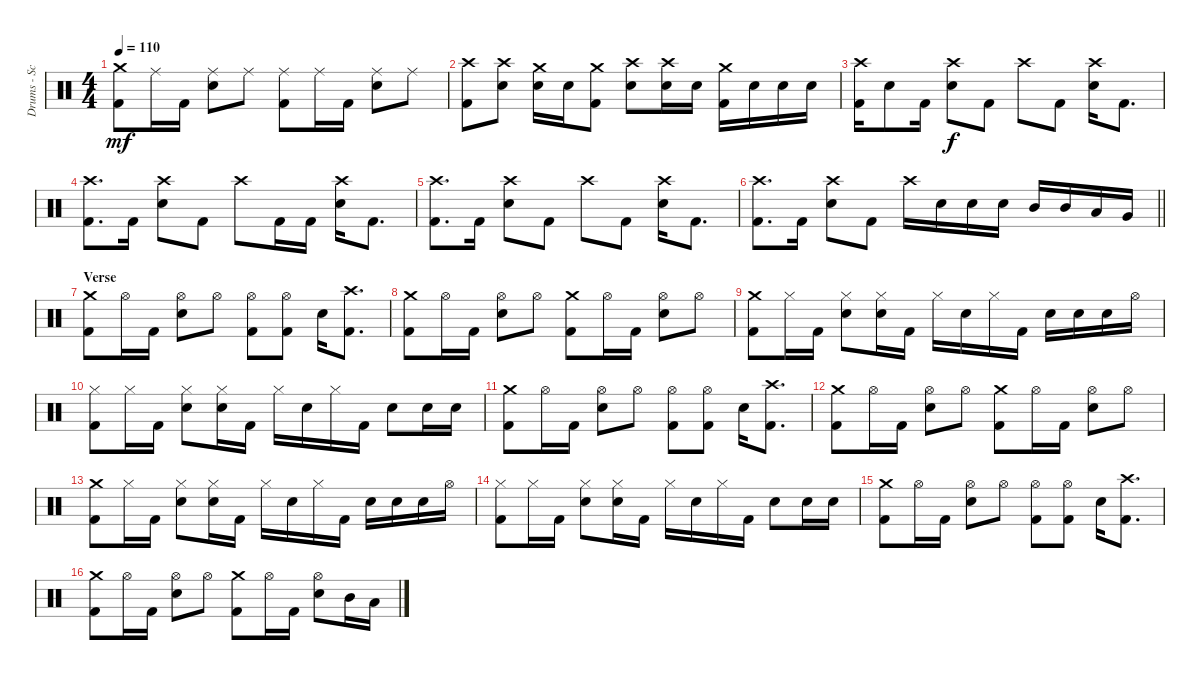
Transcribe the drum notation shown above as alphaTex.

\track ("Drums - Scott" "Drums - Sc") {instrument percussion}
\staff {score}
\articulation defaults
\ts (4 4)
\tempo 110
\clef neutral
\ks c
("Crash medium (hit)" "Kick (hit) 2").8{dy mf} "Ride (middle)".16 "Kick (hit) 2".16 ("Ride (middle)" "Electric Snare (hit)").8 "Ride (middle)".8 ("Ride (middle)" "Kick (hit) 2").8 "Ride (middle)".16 "Kick (hit) 2".16 ("Ride (middle)" "Electric Snare (hit)").8 "Ride (middle)".8 |
("Crash high (hit)" "Kick (hit) 2").8 ("Crash high (hit)" "Electric Snare (hit)").8 ("Crash medium (hit)" "Electric Snare (hit)").16 "Electric Snare (hit)".16 ("Crash medium (hit)" "Kick (hit) 2").8 ("Crash high (hit)" "Electric Snare (hit)").8 ("Crash high (hit)" "Electric Snare (hit)").16 "Electric Snare (hit)".16 ("Crash medium (hit)" "Kick (hit) 2").16 "Electric Snare (hit)".16 "Electric Snare (hit)".16 "Electric Snare (hit)".16 |
("Crash high (hit)" "Kick (hit) 2").16 "Electric Snare (hit)".8 "Kick (hit) 2".16 ("Crash high (hit)" "Electric Snare (hit)").8{dy f} "Kick (hit) 2".8 "Crash high (hit)".8 "Kick (hit) 2".8 ("Crash high (hit)" "Electric Snare (hit)").16 "Kick (hit) 2".8{d} |
("Crash high (hit)" "Kick (hit) 2").8{d} "Kick (hit) 2".16 ("Crash high (hit)" "Electric Snare (hit)").8 "Kick (hit) 2".8 "Crash high (hit)".8 "Kick (hit) 2".16 "Kick (hit) 2".16 ("Crash high (hit)" "Electric Snare (hit)").16 "Kick (hit) 2".8{d} |
("Crash high (hit)" "Kick (hit) 2").8{d} "Kick (hit) 2".16 ("Crash high (hit)" "Electric Snare (hit)").8 "Kick (hit) 2".8 "Crash high (hit)".8 "Kick (hit) 2".8 ("Crash high (hit)" "Electric Snare (hit)").16 "Kick (hit) 2".8{d} |
\barLineRight lightlight
("Crash high (hit)" "Kick (hit) 2").8{d} "Kick (hit) 2".16 ("Crash high (hit)" "Electric Snare (hit)").8 "Kick (hit) 2".8 "Crash high (hit)".16 "Electric Snare (hit)".16 "Electric Snare (hit)".16 "Electric Snare (hit)".16 "Mid Tom (hit)".16 "Mid Tom (hit)".16 "Low Tom (hit)".16 "Very Low Tom (hit)".16 |
\section ("" "Verse")
("Crash medium (hit)" "Kick (hit) 2").8 "Hi-Hat (open)".16 "Kick (hit) 2".16 ("Hi-Hat (open)" "Electric Snare (hit)").8 "Hi-Hat (open)".8 ("Hi-Hat (open)" "Kick (hit) 2").8 ("Hi-Hat (open)" "Kick (hit) 2").8 "Electric Snare (hit)".16 ("Crash high (hit)" "Kick (hit) 2").8{d} |
("Crash medium (hit)" "Kick (hit) 2").8 "Hi-Hat (open)".16 "Kick (hit) 2".16 ("Hi-Hat (open)" "Electric Snare (hit)").8 "Hi-Hat (open)".8 ("Crash medium (hit)" "Kick (hit) 2").8 "Hi-Hat (open)".16 "Kick (hit) 2".16 ("Hi-Hat (open)" "Electric Snare (hit)").8 "Hi-Hat (open)".8 |
("Crash medium (hit)" "Kick (hit) 2").8 "Hi-Hat (closed)".16 "Kick (hit) 2".16 ("Hi-Hat (closed)" "Electric Snare (hit)").8 ("Hi-Hat (closed)" "Electric Snare (hit)").16 "Kick (hit) 2".16 "Hi-Hat (closed)".16 "Electric Snare (hit)".16 "Hi-Hat (closed)".16 "Kick (hit) 2".16 "Electric Snare (hit)".16 "Electric Snare (hit)".16 "Electric Snare (hit)".16 "Hi-Hat (open)".16 |
("Hi-Hat (closed)" "Kick (hit) 2").8 "Hi-Hat (closed)".16 "Kick (hit) 2".16 ("Hi-Hat (closed)" "Electric Snare (hit)").8 ("Hi-Hat (closed)" "Electric Snare (hit)").16 "Kick (hit) 2".16 "Hi-Hat (closed)".16 "Electric Snare (hit)".16 "Hi-Hat (closed)".16 "Kick (hit) 2".16 "Electric Snare (hit)".8 "Electric Snare (hit)".16 "Electric Snare (hit)".16 |
("Crash medium (hit)" "Kick (hit) 2").8 "Hi-Hat (open)".16 "Kick (hit) 2".16 ("Hi-Hat (open)" "Electric Snare (hit)").8 "Hi-Hat (open)".8 ("Hi-Hat (open)" "Kick (hit) 2").8 ("Hi-Hat (open)" "Kick (hit) 2").8 "Electric Snare (hit)".16 ("Crash high (hit)" "Kick (hit) 2").8{d} |
("Crash medium (hit)" "Kick (hit) 2").8 "Hi-Hat (open)".16 "Kick (hit) 2".16 ("Hi-Hat (open)" "Electric Snare (hit)").8 "Hi-Hat (open)".8 ("Crash medium (hit)" "Kick (hit) 2").8 "Hi-Hat (open)".16 "Kick (hit) 2".16 ("Hi-Hat (open)" "Electric Snare (hit)").8 "Hi-Hat (open)".8 |
("Crash medium (hit)" "Kick (hit) 2").8 "Hi-Hat (closed)".16 "Kick (hit) 2".16 ("Hi-Hat (closed)" "Electric Snare (hit)").8 ("Hi-Hat (closed)" "Electric Snare (hit)").16 "Kick (hit) 2".16 "Hi-Hat (closed)".16 "Electric Snare (hit)".16 "Hi-Hat (closed)".16 "Kick (hit) 2".16 "Electric Snare (hit)".16 "Electric Snare (hit)".16 "Electric Snare (hit)".16 "Hi-Hat (open)".16 |
("Hi-Hat (closed)" "Kick (hit) 2").8 "Hi-Hat (closed)".16 "Kick (hit) 2".16 ("Hi-Hat (closed)" "Electric Snare (hit)").8 ("Hi-Hat (closed)" "Electric Snare (hit)").16 "Kick (hit) 2".16 "Hi-Hat (closed)".16 "Electric Snare (hit)".16 "Hi-Hat (closed)".16 "Kick (hit) 2".16 "Electric Snare (hit)".8 "Electric Snare (hit)".16 "Electric Snare (hit)".16 |
("Crash medium (hit)" "Kick (hit) 2").8 "Hi-Hat (open)".16 "Kick (hit) 2".16 ("Hi-Hat (open)" "Electric Snare (hit)").8 "Hi-Hat (open)".8 ("Hi-Hat (open)" "Kick (hit) 2").8 ("Hi-Hat (open)" "Kick (hit) 2").8 "Electric Snare (hit)".16 ("Crash high (hit)" "Kick (hit) 2").8{d} |
("Crash medium (hit)" "Kick (hit) 2").8 "Hi-Hat (open)".16 "Kick (hit) 2".16 ("Hi-Hat (open)" "Electric Snare (hit)").8 "Hi-Hat (open)".8 ("Crash medium (hit)" "Kick (hit) 2").8 "Hi-Hat (open)".16 "Kick (hit) 2".16 ("Hi-Hat (open)" "Electric Snare (hit)").8 "Mid Tom (hit)".16 "Low Tom (hit)".16
